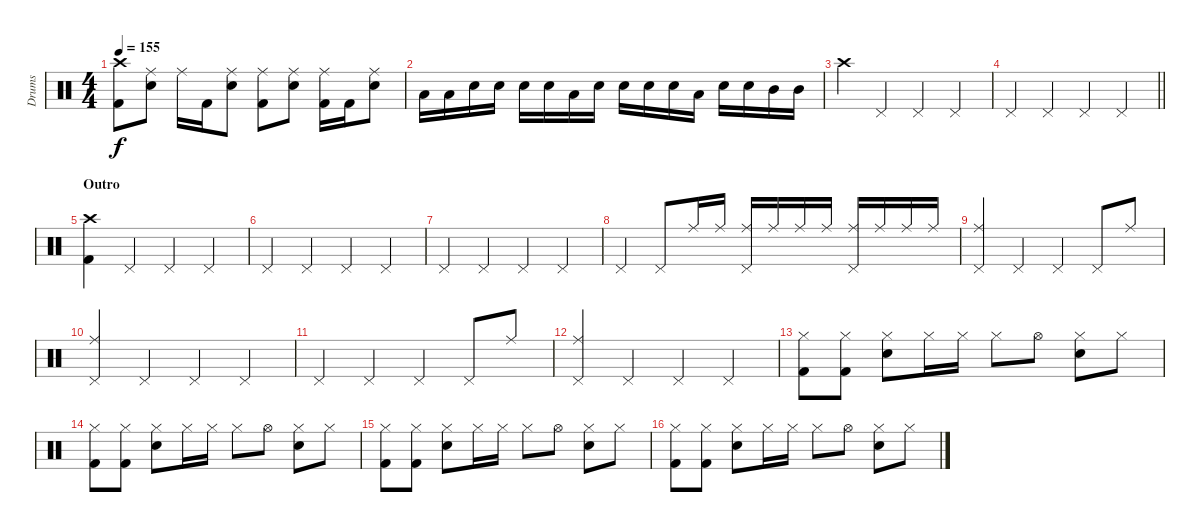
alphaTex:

\track ("Drums" "Drums") {instrument percussion}
\staff {score}
\articulation defaults
\ts (4 4)
\tempo 155
\clef neutral
\ks c
("Crash high (hit)" "Kick (hit) 2").8{dy f} ("Ride (middle)" "Electric Snare (hit)").8 "Ride (middle)".16 "Kick (hit) 2".16 ("Ride (middle)" "Electric Snare (hit)").8 ("Ride (middle)" "Kick (hit) 2").8 ("Ride (middle)" "Electric Snare (hit)").8 ("Ride (middle)" "Kick (hit) 2").16 "Kick (hit) 2".16 ("Ride (middle)" "Electric Snare (hit)").8 |
"Low Floor Tom (hit)".16 "Low Floor Tom (hit)".16 "Electric Snare (hit)".16 "Electric Snare (hit)".16 "Electric Snare (hit)".16 "Electric Snare (hit)".16 "Low Floor Tom (hit)".16 "Electric Snare (hit)".16 "Electric Snare (hit)".16 "Electric Snare (hit)".16 "Electric Snare (hit)".16 "Low Floor Tom (hit)".16 "Electric Snare (hit)".16 "Electric Snare (hit)".16 "Mid Tom (hit)".16 "Mid Tom (hit)".16 |
"Crash high (hit)".4 "Pedal Hi-Hat (hit)".4 "Pedal Hi-Hat (hit)".4 "Pedal Hi-Hat (hit)".4 |
\barLineRight lightlight "Pedal Hi-Hat (hit)".4 "Pedal Hi-Hat (hit)".4 "Pedal Hi-Hat (hit)".4 "Pedal Hi-Hat (hit)".4
|
\section ("" "Outro")
("Crash high (hit)" "Kick (hit) 2").4 "Pedal Hi-Hat (hit)".4 "Pedal Hi-Hat (hit)".4 "Pedal Hi-Hat (hit)".4 |
"Pedal Hi-Hat (hit)".4 "Pedal Hi-Hat (hit)".4 "Pedal Hi-Hat (hit)".4 "Pedal Hi-Hat (hit)".4 |
"Pedal Hi-Hat (hit)".4 "Pedal Hi-Hat (hit)".4 "Pedal Hi-Hat (hit)".4 "Pedal Hi-Hat (hit)".4 |
"Pedal Hi-Hat (hit)".4 "Pedal Hi-Hat (hit)".8 "Ride (middle)".16 "Ride (middle)".16 ("Ride (middle)" "Pedal Hi-Hat (hit)").16 "Ride (middle)".16 "Ride (middle)".16 "Ride (middle)".16 ("Ride (middle)" "Pedal Hi-Hat (hit)").16 "Ride (middle)".16 "Ride (middle)".16 "Ride (middle)".16 |
("Ride (middle)" "Pedal Hi-Hat (hit)").4 "Pedal Hi-Hat (hit)".4 "Pedal Hi-Hat (hit)".4 "Pedal Hi-Hat (hit)".8 "Ride (middle)".8 |
("Ride (middle)" "Pedal Hi-Hat (hit)").4 "Pedal Hi-Hat (hit)".4 "Pedal Hi-Hat (hit)".4 "Pedal Hi-Hat (hit)".4 |
"Pedal Hi-Hat (hit)".4 "Pedal Hi-Hat (hit)".4 "Pedal Hi-Hat (hit)".4 "Pedal Hi-Hat (hit)".8 "Ride (middle)".8 |
("Ride (middle)" "Pedal Hi-Hat (hit)").4 "Pedal Hi-Hat (hit)".4 "Pedal Hi-Hat (hit)".4 "Pedal Hi-Hat (hit)".4 |
("Hi-Hat (closed)" "Kick (hit) 2").8 ("Hi-Hat (closed)" "Kick (hit) 2").8 ("Hi-Hat (closed)" "Electric Snare (hit)").8 "Hi-Hat (closed)".16 "Hi-Hat (closed)".16 "Hi-Hat (closed)".8 "Hi-Hat (open)".8 ("Hi-Hat (closed)" "Electric Snare (hit)").8 "Hi-Hat (closed)".8 |
("Hi-Hat (closed)" "Kick (hit) 2").8 ("Hi-Hat (closed)" "Kick (hit) 2").8 ("Hi-Hat (closed)" "Electric Snare (hit)").8 "Hi-Hat (closed)".16 "Hi-Hat (closed)".16 "Hi-Hat (closed)".8 "Hi-Hat (open)".8 ("Hi-Hat (closed)" "Electric Snare (hit)").8 "Hi-Hat (closed)".8 |
("Hi-Hat (closed)" "Kick (hit) 2").8 ("Hi-Hat (closed)" "Kick (hit) 2").8 ("Hi-Hat (closed)" "Electric Snare (hit)").8 "Hi-Hat (closed)".16 "Hi-Hat (closed)".16 "Hi-Hat (closed)".8 "Hi-Hat (open)".8 ("Hi-Hat (closed)" "Electric Snare (hit)").8 "Hi-Hat (closed)".8 |
("Hi-Hat (closed)" "Kick (hit) 2").8 ("Hi-Hat (closed)" "Kick (hit) 2").8 ("Hi-Hat (closed)" "Electric Snare (hit)").8 "Hi-Hat (closed)".16 "Hi-Hat (closed)".16 "Hi-Hat (closed)".8 "Hi-Hat (open)".8 ("Hi-Hat (closed)" "Electric Snare (hit)").8 "Hi-Hat (closed)".8
